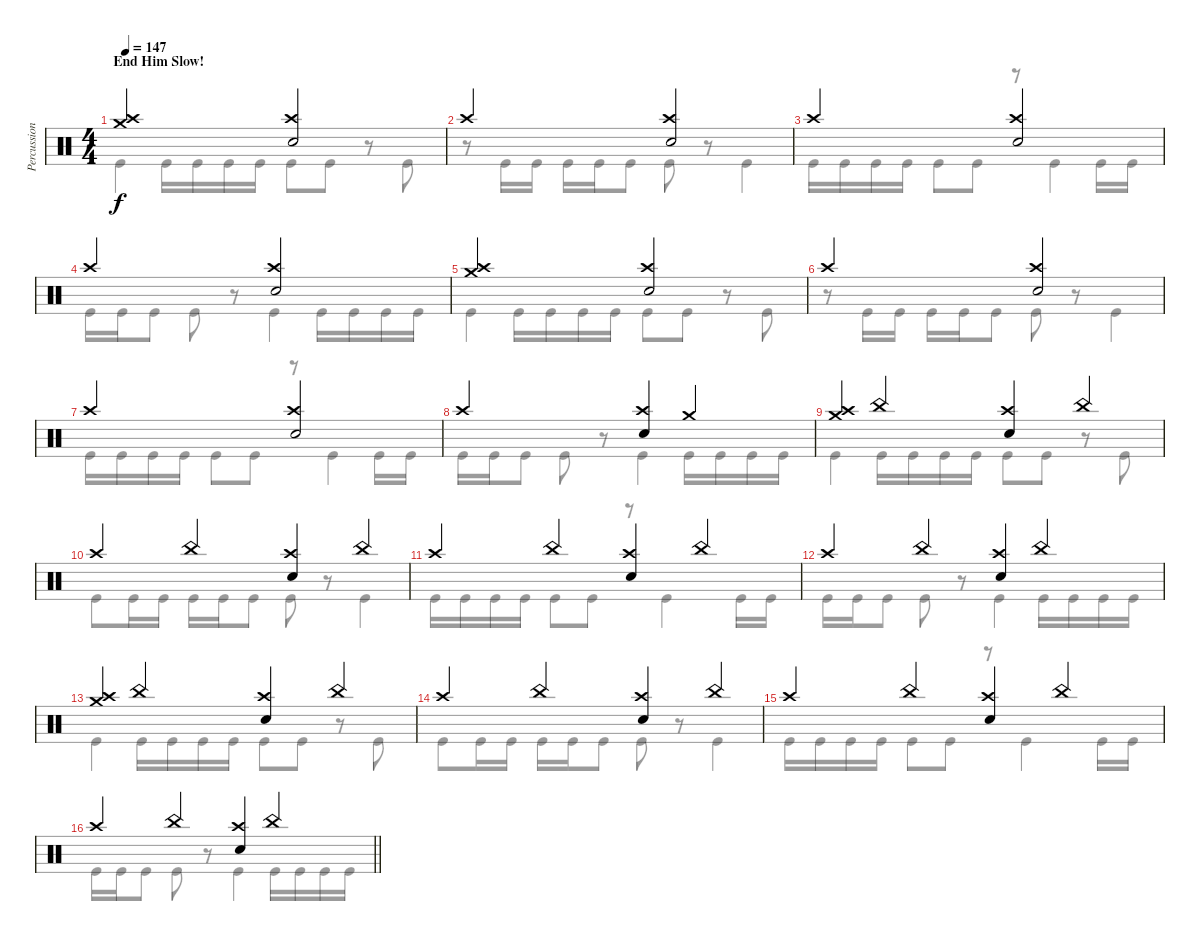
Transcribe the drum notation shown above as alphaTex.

\track ("Percussion" "Percussion") {instrument percussion}
\staff {score}
\articulation defaults
\voice
\ts (4 4)
\section ("" "End Him Slow!")
\tempo 147
\clef neutral
\ks aminor
("Crash medium (hit)" "Crash high (hit)").2{dy f} ("Crash high (hit)" "Electric Snare (hit)").2 |
"Crash high (hit)".2 ("Crash high (hit)" "Electric Snare (hit)").2 |
"Crash high (hit)".2 ("Crash high (hit)" "Electric Snare (hit)").2 |
"Crash high (hit)".2 ("Crash high (hit)" "Electric Snare (hit)").2 |
("Crash medium (hit)" "Crash high (hit)").2 ("Crash high (hit)" "Electric Snare (hit)").2 |
"Crash high (hit)".2 ("Crash high (hit)" "Electric Snare (hit)").2 |
"Crash high (hit)".2 ("Crash high (hit)" "Electric Snare (hit)").2 |
"Crash high (hit)".2 ("Crash high (hit)" "Electric Snare (hit)").4 "Crash medium (hit)".4 |
("Crash medium (hit)" "Crash high (hit)").4 "China (hit)".4 ("Crash high (hit)" "Electric Snare (hit)").4 "China (hit)".4 |
"Crash high (hit)".4 "China (hit)".4 ("Crash high (hit)" "Electric Snare (hit)").4 "China (hit)".4 |
"Crash high (hit)".4 "China (hit)".4 ("Crash high (hit)" "Electric Snare (hit)").4 "China (hit)".4 |
"Crash high (hit)".4 "China (hit)".4 ("Crash high (hit)" "Electric Snare (hit)").4 "China (hit)".4 |
("Crash medium (hit)" "Crash high (hit)").4 "China (hit)".4 ("Crash high (hit)" "Electric Snare (hit)").4 "China (hit)".4 |
"Crash high (hit)".4 "China (hit)".4 ("Crash high (hit)" "Electric Snare (hit)").4 "China (hit)".4 |
"Crash high (hit)".4 "China (hit)".4 ("Crash high (hit)" "Electric Snare (hit)").4 "China (hit)".4 |
\barLineRight lightlight "Crash high (hit)".4 "China (hit)".4
("Crash high (hit)" "Electric Snare (hit)").4 "China (hit)".4
\voice
\clef neutral
\ottava regular
\simile none
\ks aminor "Kick (hit)".4{dy f} "Kick (hit)".16 "Kick (hit)".16 "Kick (hit)".16 "Kick (hit)".16 "Kick (hit)".8 "Kick (hit)".8
r.8 "Kick (hit)".8 |
r.8 "Kick (hit)".16 "Kick (hit)".16 "Kick (hit)".16 "Kick (hit)".16 "Kick (hit)".8 "Kick (hit)".8 r.8 "Kick (hit)".4 |
"Kick (hit)".16 "Kick (hit)".16 "Kick (hit)".16 "Kick (hit)".16 "Kick (hit)".8 "Kick (hit)".8 r.8 "Kick (hit)".4 "Kick (hit)".16 "Kick (hit)".16 |
"Kick (hit)".16 "Kick (hit)".16 "Kick (hit)".8 "Kick (hit)".8 r.8 "Kick (hit)".4 "Kick (hit)".16 "Kick (hit)".16 "Kick (hit)".16 "Kick (hit)".16 |
"Kick (hit)".4 "Kick (hit)".16 "Kick (hit)".16 "Kick (hit)".16 "Kick (hit)".16 "Kick (hit)".8 "Kick (hit)".8 r.8 "Kick (hit)".8 |
r.8 "Kick (hit)".16 "Kick (hit)".16 "Kick (hit)".16 "Kick (hit)".16 "Kick (hit)".8 "Kick (hit)".8 r.8 "Kick (hit)".4 |
"Kick (hit)".16 "Kick (hit)".16 "Kick (hit)".16 "Kick (hit)".16 "Kick (hit)".8 "Kick (hit)".8 r.8 "Kick (hit)".4 "Kick (hit)".16 "Kick (hit)".16 |
"Kick (hit)".16 "Kick (hit)".16 "Kick (hit)".8 "Kick (hit)".8 r.8 "Kick (hit)".4 "Kick (hit)".16 "Kick (hit)".16 "Kick (hit)".16 "Kick (hit)".16 |
"Kick (hit)".4 "Kick (hit)".16 "Kick (hit)".16 "Kick (hit)".16 "Kick (hit)".16 "Kick (hit)".8 "Kick (hit)".8 r.8 "Kick (hit)".8 |
"Kick (hit)".8 "Kick (hit)".16 "Kick (hit)".16 "Kick (hit)".16 "Kick (hit)".16 "Kick (hit)".8 "Kick (hit)".8 r.8 "Kick (hit)".4 |
"Kick (hit)".16 "Kick (hit)".16 "Kick (hit)".16 "Kick (hit)".16 "Kick (hit)".8 "Kick (hit)".8 r.8 "Kick (hit)".4 "Kick (hit)".16 "Kick (hit)".16 |
"Kick (hit)".16 "Kick (hit)".16 "Kick (hit)".8 "Kick (hit)".8 r.8 "Kick (hit)".4 "Kick (hit)".16 "Kick (hit)".16 "Kick (hit)".16 "Kick (hit)".16 |
"Kick (hit)".4 "Kick (hit)".16 "Kick (hit)".16 "Kick (hit)".16 "Kick (hit)".16 "Kick (hit)".8 "Kick (hit)".8 r.8 "Kick (hit)".8 |
"Kick (hit)".8 "Kick (hit)".16 "Kick (hit)".16 "Kick (hit)".16 "Kick (hit)".16 "Kick (hit)".8 "Kick (hit)".8 r.8 "Kick (hit)".4 |
"Kick (hit)".16 "Kick (hit)".16 "Kick (hit)".16 "Kick (hit)".16 "Kick (hit)".8 "Kick (hit)".8 r.8 "Kick (hit)".4 "Kick (hit)".16 "Kick (hit)".16 |
\barLineRight lightlight "Kick (hit)".16 "Kick (hit)".16 "Kick (hit)".8 "Kick (hit)".8
r.8 "Kick (hit)".4 "Kick (hit)".16 "Kick (hit)".16 "Kick (hit)".16 "Kick (hit)".16
